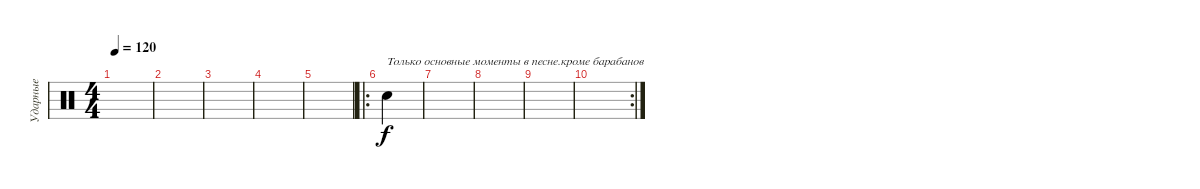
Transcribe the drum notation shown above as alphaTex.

\track ("Ударные" "Ударные") {instrument percussion}
\staff {score}
\articulation defaults
\ts (4 4)
\tempo 120
\clef neutral
\ks c
|
|
|
|
|
\ro "Snare (hit) 2".4{txt "Только основные моменты в песне.кроме барабанов"}
|
|
|
|
\rc 2
